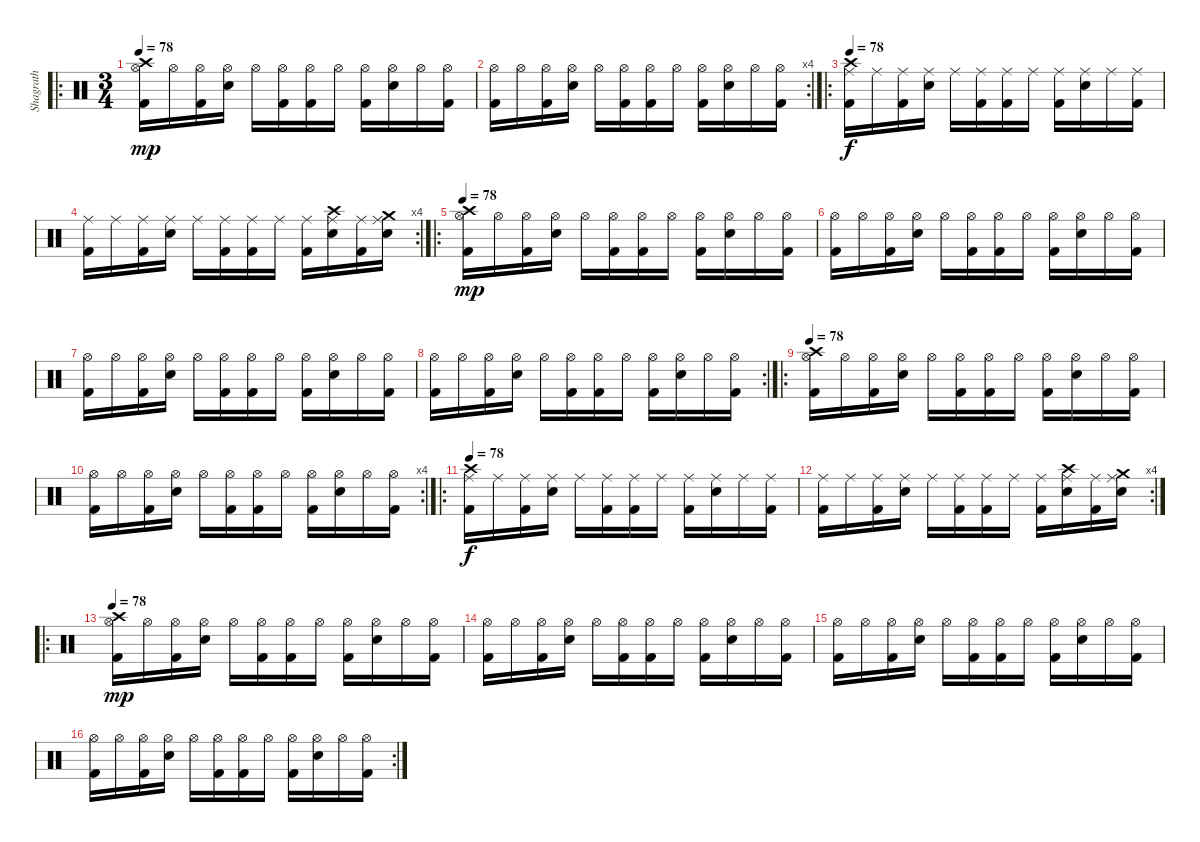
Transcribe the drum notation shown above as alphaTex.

\track ("Shagrath" "Shagrath") {instrument percussion}
\staff {score}
\articulation defaults
\ro
\ts (3 4)
\tempo 78
\clef neutral
\ks c
("Crash high (hit)" "Hi-Hat (open)" "Kick (hit) 2").16{dy mp} "Hi-Hat (open)".16 ("Hi-Hat (open)" "Kick (hit) 2").16 ("Hi-Hat (open)" "Electric Snare (hit)").16 "Hi-Hat (open)".16 ("Hi-Hat (open)" "Kick (hit) 2").16 ("Hi-Hat (open)" "Kick (hit) 2").16 "Hi-Hat (open)".16 ("Hi-Hat (open)" "Kick (hit) 2").16 ("Hi-Hat (open)" "Electric Snare (hit)").16 "Hi-Hat (open)".16 ("Hi-Hat (open)" "Kick (hit) 2").16 |
\rc 4
("Hi-Hat (open)" "Kick (hit) 2").16 "Hi-Hat (open)".16 ("Hi-Hat (open)" "Kick (hit) 2").16 ("Hi-Hat (open)" "Electric Snare (hit)").16 "Hi-Hat (open)".16 ("Hi-Hat (open)" "Kick (hit) 2").16 ("Hi-Hat (open)" "Kick (hit) 2").16 "Hi-Hat (open)".16 ("Hi-Hat (open)" "Kick (hit) 2").16 ("Hi-Hat (open)" "Electric Snare (hit)").16 "Hi-Hat (open)".16 ("Hi-Hat (open)" "Kick (hit) 2").16 |
\ro
\tempo 78
("Crash high (hit)" "Ride (middle)" "Kick (hit) 2").16{dy f} "Ride (middle)".16 ("Ride (middle)" "Kick (hit) 2").16 ("Ride (middle)" "Electric Snare (hit)").16 "Ride (middle)".16 ("Ride (middle)" "Kick (hit) 2").16 ("Ride (middle)" "Kick (hit) 2").16 "Ride (middle)".16 ("Ride (middle)" "Kick (hit) 2").16 ("Ride (middle)" "Electric Snare (hit)").16 "Ride (middle)".16 ("Ride (middle)" "Kick (hit) 2").16 |
\rc 4
("Ride (middle)" "Kick (hit) 2").16 "Ride (middle)".16 ("Ride (middle)" "Kick (hit) 2").16 ("Ride (middle)" "Electric Snare (hit)").16 "Ride (middle)".16 ("Ride (middle)" "Kick (hit) 2").16 ("Ride (middle)" "Kick (hit) 2").16 "Ride (middle)".16 ("Ride (middle)" "Kick (hit) 2").16 ("Ride (middle)" "Crash high (hit)" "Electric Snare (hit)").16 ("Ride (middle)" "Kick (hit) 2").16 ("Ride (middle)" "Crash medium (hit)" "Electric Snare (hit)").16 |
\ro
\tempo 78
("Crash high (hit)" "Hi-Hat (open)" "Kick (hit) 2").16{dy mp} "Hi-Hat (open)".16 ("Hi-Hat (open)" "Kick (hit) 2").16 ("Hi-Hat (open)" "Electric Snare (hit)").16 "Hi-Hat (open)".16 ("Hi-Hat (open)" "Kick (hit) 2").16 ("Hi-Hat (open)" "Kick (hit) 2").16 "Hi-Hat (open)".16 ("Hi-Hat (open)" "Kick (hit) 2").16 ("Hi-Hat (open)" "Electric Snare (hit)").16 "Hi-Hat (open)".16 ("Hi-Hat (open)" "Kick (hit) 2").16 |
("Hi-Hat (open)" "Kick (hit) 2").16 "Hi-Hat (open)".16 ("Hi-Hat (open)" "Kick (hit) 2").16 ("Hi-Hat (open)" "Electric Snare (hit)").16 "Hi-Hat (open)".16 ("Hi-Hat (open)" "Kick (hit) 2").16 ("Hi-Hat (open)" "Kick (hit) 2").16 "Hi-Hat (open)".16 ("Hi-Hat (open)" "Kick (hit) 2").16 ("Hi-Hat (open)" "Electric Snare (hit)").16 "Hi-Hat (open)".16 ("Hi-Hat (open)" "Kick (hit) 2").16 |
("Hi-Hat (open)" "Kick (hit) 2").16 "Hi-Hat (open)".16 ("Hi-Hat (open)" "Kick (hit) 2").16 ("Hi-Hat (open)" "Electric Snare (hit)").16 "Hi-Hat (open)".16 ("Hi-Hat (open)" "Kick (hit) 2").16 ("Hi-Hat (open)" "Kick (hit) 2").16 "Hi-Hat (open)".16 ("Hi-Hat (open)" "Kick (hit) 2").16 ("Hi-Hat (open)" "Electric Snare (hit)").16 "Hi-Hat (open)".16 ("Hi-Hat (open)" "Kick (hit) 2").16 |
\rc 2
("Hi-Hat (open)" "Kick (hit) 2").16 "Hi-Hat (open)".16 ("Hi-Hat (open)" "Kick (hit) 2").16 ("Hi-Hat (open)" "Electric Snare (hit)").16 "Hi-Hat (open)".16 ("Hi-Hat (open)" "Kick (hit) 2").16 ("Hi-Hat (open)" "Kick (hit) 2").16 "Hi-Hat (open)".16 ("Hi-Hat (open)" "Kick (hit) 2").16 ("Hi-Hat (open)" "Electric Snare (hit)").16 "Hi-Hat (open)".16 ("Hi-Hat (open)" "Kick (hit) 2").16 |
\ro
\tempo 78
("Crash high (hit)" "Hi-Hat (open)" "Kick (hit) 2").16 "Hi-Hat (open)".16 ("Hi-Hat (open)" "Kick (hit) 2").16 ("Hi-Hat (open)" "Electric Snare (hit)").16 "Hi-Hat (open)".16 ("Hi-Hat (open)" "Kick (hit) 2").16 ("Hi-Hat (open)" "Kick (hit) 2").16 "Hi-Hat (open)".16 ("Hi-Hat (open)" "Kick (hit) 2").16 ("Hi-Hat (open)" "Electric Snare (hit)").16 "Hi-Hat (open)".16 ("Hi-Hat (open)" "Kick (hit) 2").16 |
\rc 4
("Hi-Hat (open)" "Kick (hit) 2").16 "Hi-Hat (open)".16 ("Hi-Hat (open)" "Kick (hit) 2").16 ("Hi-Hat (open)" "Electric Snare (hit)").16 "Hi-Hat (open)".16 ("Hi-Hat (open)" "Kick (hit) 2").16 ("Hi-Hat (open)" "Kick (hit) 2").16 "Hi-Hat (open)".16 ("Hi-Hat (open)" "Kick (hit) 2").16 ("Hi-Hat (open)" "Electric Snare (hit)").16 "Hi-Hat (open)".16 ("Hi-Hat (open)" "Kick (hit) 2").16 |
\ro
\tempo 78
("Crash high (hit)" "Ride (middle)" "Kick (hit) 2").16{dy f} "Ride (middle)".16 ("Ride (middle)" "Kick (hit) 2").16 ("Ride (middle)" "Electric Snare (hit)").16 "Ride (middle)".16 ("Ride (middle)" "Kick (hit) 2").16 ("Ride (middle)" "Kick (hit) 2").16 "Ride (middle)".16 ("Ride (middle)" "Kick (hit) 2").16 ("Ride (middle)" "Electric Snare (hit)").16 "Ride (middle)".16 ("Ride (middle)" "Kick (hit) 2").16 |
\rc 4
("Ride (middle)" "Kick (hit) 2").16 "Ride (middle)".16 ("Ride (middle)" "Kick (hit) 2").16 ("Ride (middle)" "Electric Snare (hit)").16 "Ride (middle)".16 ("Ride (middle)" "Kick (hit) 2").16 ("Ride (middle)" "Kick (hit) 2").16 "Ride (middle)".16 ("Ride (middle)" "Kick (hit) 2").16 ("Ride (middle)" "Crash high (hit)" "Electric Snare (hit)").16 ("Ride (middle)" "Kick (hit) 2").16 ("Ride (middle)" "Crash medium (hit)" "Electric Snare (hit)").16 |
\ro
\tempo 78
("Crash high (hit)" "Hi-Hat (open)" "Kick (hit) 2").16{dy mp} "Hi-Hat (open)".16 ("Hi-Hat (open)" "Kick (hit) 2").16 ("Hi-Hat (open)" "Electric Snare (hit)").16 "Hi-Hat (open)".16 ("Hi-Hat (open)" "Kick (hit) 2").16 ("Hi-Hat (open)" "Kick (hit) 2").16 "Hi-Hat (open)".16 ("Hi-Hat (open)" "Kick (hit) 2").16 ("Hi-Hat (open)" "Electric Snare (hit)").16 "Hi-Hat (open)".16 ("Hi-Hat (open)" "Kick (hit) 2").16 |
("Hi-Hat (open)" "Kick (hit) 2").16 "Hi-Hat (open)".16 ("Hi-Hat (open)" "Kick (hit) 2").16 ("Hi-Hat (open)" "Electric Snare (hit)").16 "Hi-Hat (open)".16 ("Hi-Hat (open)" "Kick (hit) 2").16 ("Hi-Hat (open)" "Kick (hit) 2").16 "Hi-Hat (open)".16 ("Hi-Hat (open)" "Kick (hit) 2").16 ("Hi-Hat (open)" "Electric Snare (hit)").16 "Hi-Hat (open)".16 ("Hi-Hat (open)" "Kick (hit) 2").16 |
("Hi-Hat (open)" "Kick (hit) 2").16 "Hi-Hat (open)".16 ("Hi-Hat (open)" "Kick (hit) 2").16 ("Hi-Hat (open)" "Electric Snare (hit)").16 "Hi-Hat (open)".16 ("Hi-Hat (open)" "Kick (hit) 2").16 ("Hi-Hat (open)" "Kick (hit) 2").16 "Hi-Hat (open)".16 ("Hi-Hat (open)" "Kick (hit) 2").16 ("Hi-Hat (open)" "Electric Snare (hit)").16 "Hi-Hat (open)".16 ("Hi-Hat (open)" "Kick (hit) 2").16 |
\rc 2
("Hi-Hat (open)" "Kick (hit) 2").16 "Hi-Hat (open)".16 ("Hi-Hat (open)" "Kick (hit) 2").16 ("Hi-Hat (open)" "Electric Snare (hit)").16 "Hi-Hat (open)".16 ("Hi-Hat (open)" "Kick (hit) 2").16 ("Hi-Hat (open)" "Kick (hit) 2").16 "Hi-Hat (open)".16 ("Hi-Hat (open)" "Kick (hit) 2").16 ("Hi-Hat (open)" "Electric Snare (hit)").16 "Hi-Hat (open)".16 ("Hi-Hat (open)" "Kick (hit) 2").16
